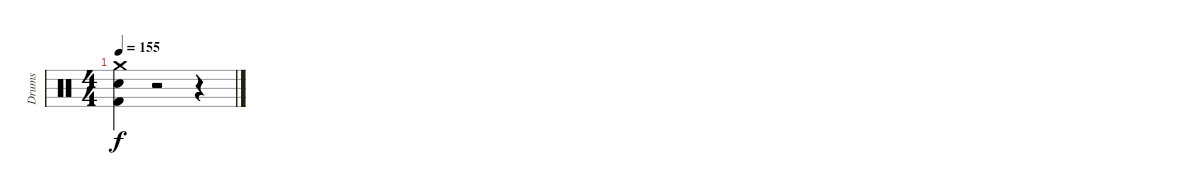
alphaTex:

\track ("Drums" "Drums") {instrument percussion}
\staff {score}
\articulation defaults
\ts (4 4)
\tempo 155
\clef neutral
\ks c
("Crash medium (hit)" "Snare (hit) 2" "Kick (hit) 2").4{dy f} r.2 r.4
